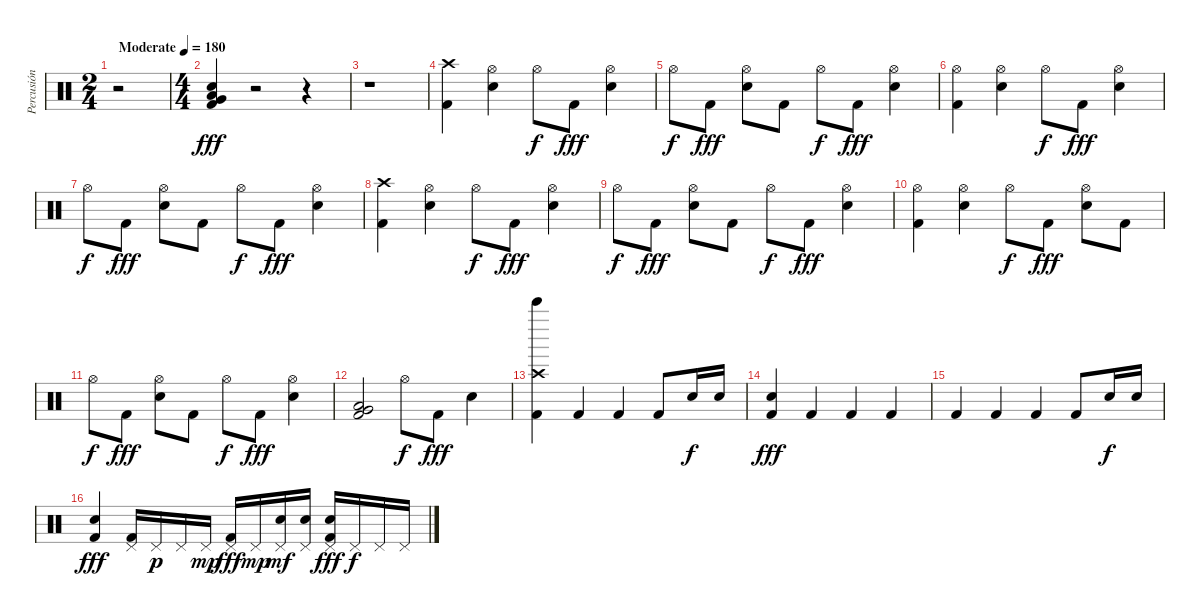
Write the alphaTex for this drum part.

\track ("Percusión" "Percusión") {instrument percussion}
\staff {score}
\articulation defaults
\ts (2 4)
\tempo (180 "Moderate")
\clef neutral
\ks c
r.2{dy fff} |
\ts (4 4)
("Electric Snare (hit)" "Very Low Tom (hit)" "Low Floor Tom (hit)" "Kick (hit) 2").4 r.2 r.4 |
r.1 |
("Crash high (hit)" "Kick (hit) 2").4 ("Hi-Hat (open)" "Electric Snare (hit)").4 "Hi-Hat (open)".8{dy f} "Kick (hit) 2".8{dy fff} ("Hi-Hat (open)" "Electric Snare (hit)").4 |
"Hi-Hat (open)".8{dy f} "Kick (hit) 2".8{dy fff} ("Hi-Hat (open)" "Electric Snare (hit)").8 "Kick (hit) 2".8 "Hi-Hat (open)".8{dy f} "Kick (hit) 2".8{dy fff} ("Hi-Hat (open)" "Electric Snare (hit)").4 |
("Hi-Hat (open)" "Kick (hit) 2").4 ("Hi-Hat (open)" "Electric Snare (hit)").4 "Hi-Hat (open)".8{dy f} "Kick (hit) 2".8{dy fff} ("Hi-Hat (open)" "Electric Snare (hit)").4 |
"Hi-Hat (open)".8{dy f} "Kick (hit) 2".8{dy fff} ("Hi-Hat (open)" "Electric Snare (hit)").8 "Kick (hit) 2".8 "Hi-Hat (open)".8{dy f} "Kick (hit) 2".8{dy fff} ("Hi-Hat (open)" "Electric Snare (hit)").4 |
("Crash high (hit)" "Kick (hit) 2").4 ("Hi-Hat (open)" "Electric Snare (hit)").4 "Hi-Hat (open)".8{dy f} "Kick (hit) 2".8{dy fff} ("Hi-Hat (open)" "Electric Snare (hit)").4 |
"Hi-Hat (open)".8{dy f} "Kick (hit) 2".8{dy fff} ("Hi-Hat (open)" "Electric Snare (hit)").8 "Kick (hit) 2".8 "Hi-Hat (open)".8{dy f} "Kick (hit) 2".8{dy fff} ("Hi-Hat (open)" "Electric Snare (hit)").4 |
("Hi-Hat (open)" "Kick (hit) 2").4 ("Hi-Hat (open)" "Electric Snare (hit)").4 "Hi-Hat (open)".8{dy f} "Kick (hit) 2".8{dy fff} ("Hi-Hat (open)" "Electric Snare (hit)").8 "Kick (hit) 2".8 |
"Hi-Hat (open)".8{dy f} "Kick (hit) 2".8{dy fff} ("Hi-Hat (open)" "Electric Snare (hit)").8 "Kick (hit) 2".8 "Hi-Hat (open)".8{dy f} "Kick (hit) 2".8{dy fff} ("Hi-Hat (open)" "Electric Snare (hit)").4 |
("Very Low Tom (hit)" "Low Floor Tom (hit)" "Kick (hit) 2").2 "Hi-Hat (open)".8{dy f} "Kick (hit) 2".8{dy fff} "Electric Snare (hit)".4 |
("Crash high (hit)" "Bell Tree (hit)" "Kick (hit) 2").4 "Kick (hit) 2".4 "Kick (hit) 2".4 "Kick (hit) 2".8 "Electric Snare (hit)".16{dy f} "Electric Snare (hit)".16 |
("Electric Snare (hit)" "Kick (hit) 2").4{dy fff} "Kick (hit) 2".4 "Kick (hit) 2".4 "Kick (hit) 2".4 |
"Kick (hit) 2".4 "Kick (hit) 2".4 "Kick (hit) 2".4 "Kick (hit) 2".8 "Electric Snare (hit)".16{dy f} "Electric Snare (hit)".16 |
("Electric Snare (hit)" "Kick (hit) 2").4{dy fff} ("Pedal Hi-Hat (hit)" "Kick (hit) 2").16 "Pedal Hi-Hat (hit)".16{dy p} "Pedal Hi-Hat (hit)".16 "Pedal Hi-Hat (hit)".16{dy mp} ("Pedal Hi-Hat (hit)" "Kick (hit) 2").16{dy fff} "Pedal Hi-Hat (hit)".16{dy mp} ("Pedal Hi-Hat (hit)" "Electric Snare (hit)").16{dy mf} ("Pedal Hi-Hat (hit)" "Electric Snare (hit)").16 ("Pedal Hi-Hat (hit)" "Electric Snare (hit)" "Kick (hit) 2").16{dy fff} "Pedal Hi-Hat (hit)".16{dy f} "Pedal Hi-Hat (hit)".16 "Pedal Hi-Hat (hit)".16
